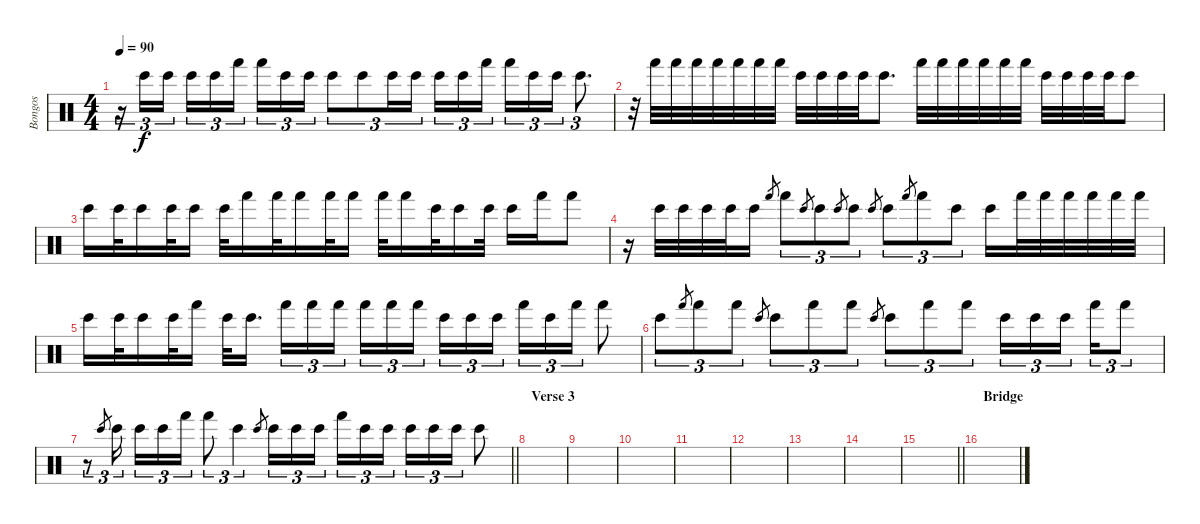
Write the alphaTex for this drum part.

\track ("Bongos" "Bongos") {instrument percussion}
\staff {score}
\articulation defaults
\ts (4 4)
\tempo 90
\clef neutral
\ks c
r.16{tu (3 2) dy f} "Bongo High (hit)".16{tu (3 2)} "Bongo High (hit)".16{tu (3 2) beam splitsecondary} "Bongo High (hit)".16{tu (3 2)} "Bongo High (hit)".16{tu (3 2)} "Hand (hit)".16{tu (3 2)} "Hand (hit)".16{tu (3 2)} "Bongo High (hit)".16{tu (3 2)} "Bongo High (hit)".16{tu (3 2)} "Bongo High (hit)".8{tu (3 2)} "Bongo High (hit)".8{tu (3 2)} "Bongo High (hit)".16{tu (3 2)} "Bongo High (hit)".16{tu (3 2) beam splitsecondary} "Bongo High (hit)".16{tu (3 2)} "Bongo High (hit)".16{tu (3 2)} "Hand (hit)".16{tu (3 2)} "Hand (hit)".16{tu (3 2)} "Bongo High (hit)".16{tu (3 2)} "Bongo High (hit)".16{tu (3 2)} "Bongo High (hit)".8{d tu (3 2)} |
r.32 "Hand (hit)".32 "Hand (hit)".32 "Hand (hit)".32 "Hand (hit)".32 "Hand (hit)".32 "Hand (hit)".32 "Hand (hit)".32 "Bongo High (hit)".32 "Bongo High (hit)".32 "Bongo High (hit)".32 "Bongo High (hit)".32 "Bongo High (hit)".8{d} "Hand (hit)".32 "Hand (hit)".32 "Hand (hit)".32 "Hand (hit)".32 "Hand (hit)".32 "Hand (hit)".32 "Bongo High (hit)".32 "Bongo High (hit)".32 "Bongo High (hit)".32 "Bongo High (hit)".32 "Bongo High (hit)".8 |
"Bongo High (hit)".16 "Bongo High (hit)".32 "Bongo High (hit)".16 "Bongo High (hit)".32 "Bongo High (hit)".16 "Bongo High (hit)".32 "Hand (hit)".16 "Hand (hit)".32 "Hand (hit)".16 "Hand (hit)".32 "Hand (hit)".16 "Hand (hit)".32 "Hand (hit)".16 "Bongo High (hit)".32 "Bongo High (hit)".16 "Bongo High (hit)".32 "Bongo High (hit)".16 "Hand (hit)".16 "Hand (hit)".8 |
r.16 "Bongo High (hit)".32 "Bongo High (hit)".32 "Bongo High (hit)".32 "Bongo High (hit)".32 "Bongo High (hit)".16 "Hand (hit)".8{gr} "Hand (hit)".8{tu (3 2)} "Bongo High (hit)".8{gr} "Bongo High (hit)".8{tu (3 2)} "Bongo High (hit)".8{gr} "Bongo High (hit)".8{tu (3 2)} "Bongo High (hit)".8{gr} "Bongo High (hit)".8{tu (3 2)} "Hand (hit)".8{gr} "Hand (hit)".8{tu (3 2)} "Bongo High (hit)".8{tu (3 2)} "Bongo High (hit)".16 "Hand (hit)".32 "Hand (hit)".32 "Hand (hit)".32 "Hand (hit)".32 "Hand (hit)".32 "Hand (hit)".32 |
"Bongo High (hit)".16 "Bongo High (hit)".32 "Bongo High (hit)".16 "Bongo High (hit)".32 "Hand (hit)".16 "Bongo High (hit)".32 "Bongo High (hit)".16{d beam splitsecondary} "Hand (hit)".16{tu (3 2)} "Hand (hit)".16{tu (3 2)} "Hand (hit)".16{tu (3 2)} "Hand (hit)".16{tu (3 2)} "Hand (hit)".16{tu (3 2)} "Hand (hit)".16{tu (3 2) beam splitsecondary} "Bongo High (hit)".16{tu (3 2)} "Bongo High (hit)".16{tu (3 2)} "Bongo High (hit)".16{tu (3 2)} "Hand (hit)".16{tu (3 2)} "Bongo High (hit)".16{tu (3 2)} "Hand (hit)".16{tu (3 2)} "Hand (hit)".8 |
"Bongo High (hit)".8{tu (3 2)} "Hand (hit)".8{gr} "Hand (hit)".8{tu (3 2)} "Hand (hit)".8{tu (3 2)} "Bongo High (hit)".8{gr} "Bongo High (hit)".8{tu (3 2)} "Hand (hit)".8{tu (3 2)} "Hand (hit)".8{tu (3 2)} "Bongo High (hit)".8{gr} "Bongo High (hit)".8{tu (3 2)} "Hand (hit)".8{tu (3 2)} "Hand (hit)".8{tu (3 2)} "Bongo High (hit)".16{tu (3 2)} "Bongo High (hit)".16{tu (3 2)} "Bongo High (hit)".16{tu (3 2) beam splitsecondary} "Hand (hit)".16{tu (3 2)} "Hand (hit)".8{tu (3 2)} |
\barLineRight lightlight
r.8{tu (3 2)} "Bongo High (hit)".8{gr} "Bongo High (hit)".16{tu (3 2) beam splitsecondary} "Bongo High (hit)".16{tu (3 2)} "Bongo High (hit)".16{tu (3 2)} "Hand (hit)".16{tu (3 2)} "Hand (hit)".8{tu (3 2)} "Bongo High (hit)".4{tu (3 2)} "Bongo High (hit)".8{gr} "Bongo High (hit)".16{tu (3 2)} "Bongo High (hit)".16{tu (3 2)} "Bongo High (hit)".16{tu (3 2) beam splitsecondary} "Hand (hit)".16{tu (3 2)} "Bongo High (hit)".16{tu (3 2)} "Bongo High (hit)".16{tu (3 2)} "Bongo High (hit)".16{tu (3 2)} "Bongo High (hit)".16{tu (3 2)} "Bongo High (hit)".16{tu (3 2)} "Bongo High (hit)".8 |
\section ("" "Verse 3")
|
|
|
|
|
|
|
\barLineRight lightlight
|
\section ("" "Bridge")
